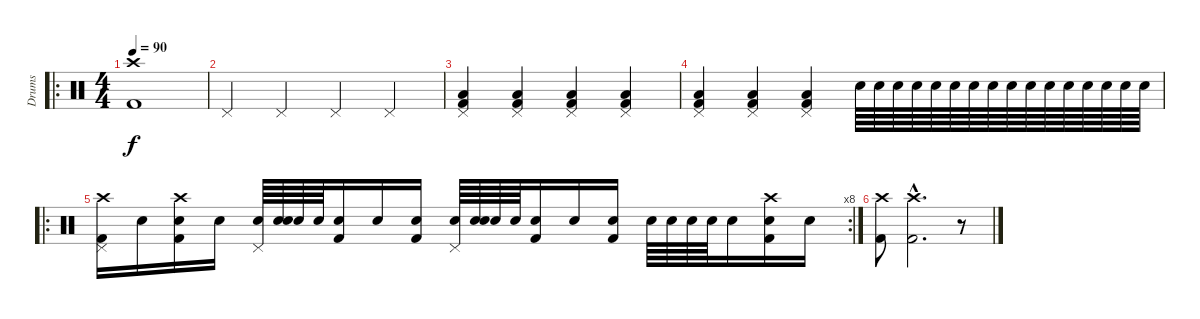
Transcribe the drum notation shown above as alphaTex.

\track ("Drums" "Drums") {instrument percussion}
\staff {score}
\articulation defaults
\ro
\ts (4 4)
\tempo 90
\clef neutral
\ks c
("Crash high (hit)" "Kick (hit) 2").1{dy f} |
"Pedal Hi-Hat (hit)".4 "Pedal Hi-Hat (hit)".4 "Pedal Hi-Hat (hit)".4 "Pedal Hi-Hat (hit)".4 |
("Pedal Hi-Hat (hit)" "Low Tom (hit)" "Kick (hit) 2").4 ("Pedal Hi-Hat (hit)" "Low Tom (hit)" "Kick (hit) 2").4 ("Pedal Hi-Hat (hit)" "Low Tom (hit)" "Kick (hit) 2").4 ("Pedal Hi-Hat (hit)" "Low Tom (hit)" "Kick (hit) 2").4 |
("Pedal Hi-Hat (hit)" "Low Tom (hit)" "Kick (hit) 2").4 ("Pedal Hi-Hat (hit)" "Low Tom (hit)" "Kick (hit) 2").4 ("Pedal Hi-Hat (hit)" "Low Tom (hit)" "Kick (hit) 2").4 "Snare (hit) 2".64 "Snare (hit) 2".64 "Snare (hit)".64 "Snare (hit)".64 "Snare (hit)".64 "Snare (hit)".64 "Snare (hit)".64 "Snare (hit)".64 "Snare (hit) 2".64 "Snare (hit) 2".64 "Snare (hit)".64 "Snare (hit)".64 "Snare (hit)".64 "Snare (hit)".64 "Snare (hit)".64 "Snare (hit)".64 |
\ro
\rc 8
("Crash high (hit)" "Kick (hit) 2" "Pedal Hi-Hat (hit)").16 "Snare (hit)".16 ("Crash high (hit)" "Kick (hit) 2" "Snare (hit)").16 "Snare (hit)".16 ("Snare (hit) 2" "Pedal Hi-Hat (hit)").64 ("Snare (hit) 2" "Snare (hit)").64 "Snare (hit)".64 "Snare (hit)".64 ("Kick (hit) 2" "Snare (hit)").16 "Snare (hit)".16 ("Kick (hit) 2" "Snare (hit)").16 ("Snare (hit) 2" "Pedal Hi-Hat (hit)").64 ("Snare (hit) 2" "Snare (hit)").64 "Snare (hit)".64 "Snare (hit)".64 ("Kick (hit) 2" "Snare (hit)").16 "Snare (hit)".16 ("Kick (hit) 2" "Snare (hit)").16 "Snare (hit) 2".64 "Snare (hit) 2".64 "Snare (hit)".64 "Snare (hit)".64 "Snare (hit)".16 ("Crash high (hit)" "Kick (hit) 2" "Snare (hit)").16 "Snare (hit)".16 |
("Crash high (hit)" "Kick (hit) 2").8 ("Crash high (hit)"{hac} "Kick (hit) 2"{hac}).2{d} r.8
